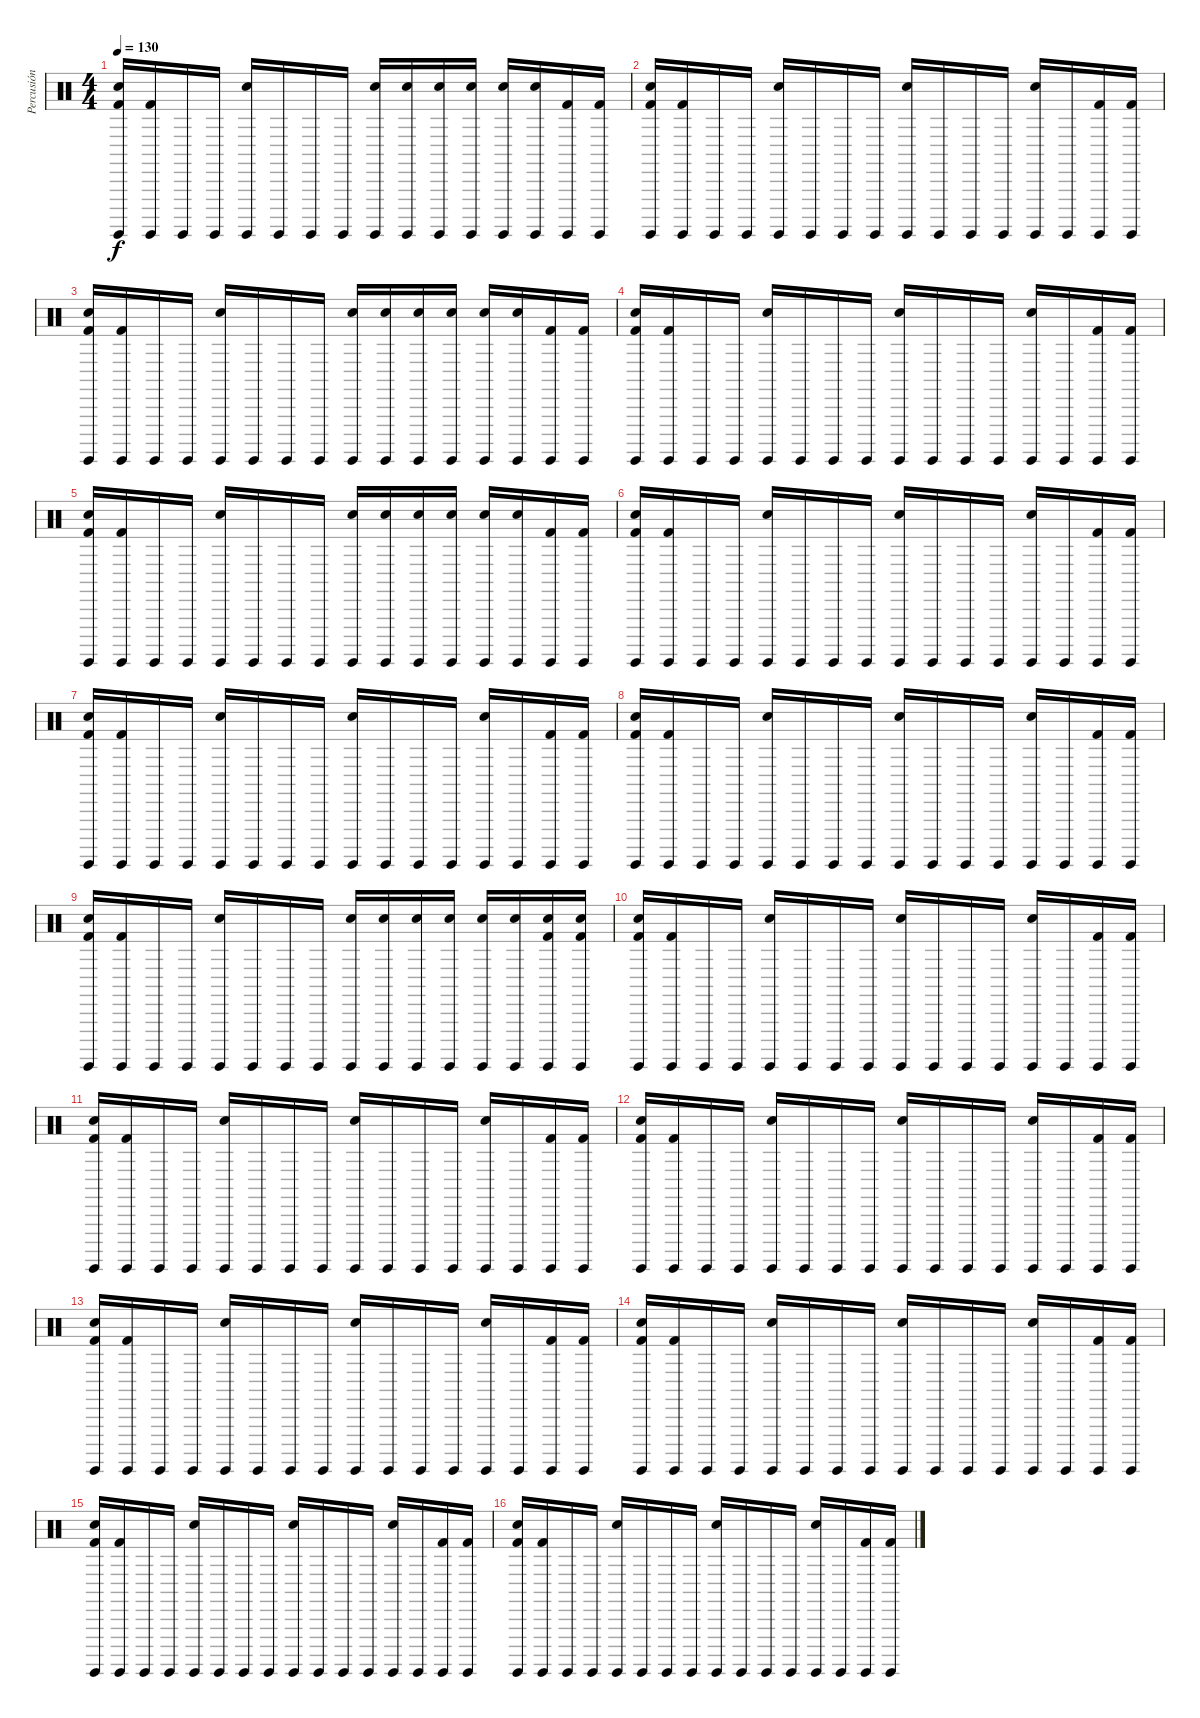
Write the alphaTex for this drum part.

\track ("Percusión" "Percusión") {instrument percussion}
\staff {score}
\articulation defaults
\ts (4 4)
\tempo 130
\clef neutral
\ks c
("Kick (hit) 2" "Electric Snare (hit)" "Surdo (hit)").16{dy f} ("Kick (hit) 2" "Surdo (hit)").16 "Surdo (hit)".16 "Surdo (hit)".16 ("Electric Snare (hit)" "Surdo (hit)").16 "Surdo (hit)".16 "Surdo (hit)".16 "Surdo (hit)".16 ("Electric Snare (hit)" "Surdo (hit)").16 ("Electric Snare (hit)" "Surdo (hit)").16 ("Electric Snare (hit)" "Surdo (hit)").16 ("Electric Snare (hit)" "Surdo (hit)").16 ("Electric Snare (hit)" "Surdo (hit)").16 ("Electric Snare (hit)" "Surdo (hit)").16 ("Kick (hit) 2" "Surdo (hit)").16 ("Kick (hit) 2" "Surdo (hit)").16 |
("Kick (hit) 2" "Electric Snare (hit)" "Surdo (hit)").16 ("Kick (hit) 2" "Surdo (hit)").16 "Surdo (hit)".16 "Surdo (hit)".16 ("Electric Snare (hit)" "Surdo (hit)").16 "Surdo (hit)".16 "Surdo (hit)".16 "Surdo (hit)".16 ("Electric Snare (hit)" "Surdo (hit)").16 "Surdo (hit)".16 "Surdo (hit)".16 "Surdo (hit)".16 ("Electric Snare (hit)" "Surdo (hit)").16 "Surdo (hit)".16 ("Kick (hit) 2" "Surdo (hit)").16 ("Kick (hit) 2" "Surdo (hit)").16 |
("Kick (hit) 2" "Electric Snare (hit)" "Surdo (hit)").16 ("Kick (hit) 2" "Surdo (hit)").16 "Surdo (hit)".16 "Surdo (hit)".16 ("Electric Snare (hit)" "Surdo (hit)").16 "Surdo (hit)".16 "Surdo (hit)".16 "Surdo (hit)".16 ("Electric Snare (hit)" "Surdo (hit)").16 ("Electric Snare (hit)" "Surdo (hit)").16 ("Electric Snare (hit)" "Surdo (hit)").16 ("Electric Snare (hit)" "Surdo (hit)").16 ("Electric Snare (hit)" "Surdo (hit)").16 ("Electric Snare (hit)" "Surdo (hit)").16 ("Kick (hit) 2" "Surdo (hit)").16 ("Kick (hit) 2" "Surdo (hit)").16 |
("Kick (hit) 2" "Electric Snare (hit)" "Surdo (hit)").16 ("Kick (hit) 2" "Surdo (hit)").16 "Surdo (hit)".16 "Surdo (hit)".16 ("Electric Snare (hit)" "Surdo (hit)").16 "Surdo (hit)".16 "Surdo (hit)".16 "Surdo (hit)".16 ("Electric Snare (hit)" "Surdo (hit)").16 "Surdo (hit)".16 "Surdo (hit)".16 "Surdo (hit)".16 ("Electric Snare (hit)" "Surdo (hit)").16 "Surdo (hit)".16 ("Kick (hit) 2" "Surdo (hit)").16 ("Kick (hit) 2" "Surdo (hit)").16 |
("Kick (hit) 2" "Electric Snare (hit)" "Surdo (hit)").16 ("Kick (hit) 2" "Surdo (hit)").16 "Surdo (hit)".16 "Surdo (hit)".16 ("Electric Snare (hit)" "Surdo (hit)").16 "Surdo (hit)".16 "Surdo (hit)".16 "Surdo (hit)".16 ("Electric Snare (hit)" "Surdo (hit)").16 ("Electric Snare (hit)" "Surdo (hit)").16 ("Electric Snare (hit)" "Surdo (hit)").16 ("Electric Snare (hit)" "Surdo (hit)").16 ("Electric Snare (hit)" "Surdo (hit)").16 ("Electric Snare (hit)" "Surdo (hit)").16 ("Kick (hit) 2" "Surdo (hit)").16 ("Kick (hit) 2" "Surdo (hit)").16 |
("Kick (hit) 2" "Electric Snare (hit)" "Surdo (hit)").16 ("Kick (hit) 2" "Surdo (hit)").16 "Surdo (hit)".16 "Surdo (hit)".16 ("Electric Snare (hit)" "Surdo (hit)").16 "Surdo (hit)".16 "Surdo (hit)".16 "Surdo (hit)".16 ("Electric Snare (hit)" "Surdo (hit)").16 "Surdo (hit)".16 "Surdo (hit)".16 "Surdo (hit)".16 ("Electric Snare (hit)" "Surdo (hit)").16 "Surdo (hit)".16 ("Kick (hit) 2" "Surdo (hit)").16 ("Kick (hit) 2" "Surdo (hit)").16 |
("Kick (hit) 2" "Electric Snare (hit)" "Surdo (hit)").16 ("Kick (hit) 2" "Surdo (hit)").16 "Surdo (hit)".16 "Surdo (hit)".16 ("Electric Snare (hit)" "Surdo (hit)").16 "Surdo (hit)".16 "Surdo (hit)".16 "Surdo (hit)".16 ("Electric Snare (hit)" "Surdo (hit)").16 "Surdo (hit)".16 "Surdo (hit)".16 "Surdo (hit)".16 ("Electric Snare (hit)" "Surdo (hit)").16 "Surdo (hit)".16 ("Kick (hit) 2" "Surdo (hit)").16 ("Kick (hit) 2" "Surdo (hit)").16 |
("Kick (hit) 2" "Electric Snare (hit)" "Surdo (hit)").16 ("Kick (hit) 2" "Surdo (hit)").16 "Surdo (hit)".16 "Surdo (hit)".16 ("Electric Snare (hit)" "Surdo (hit)").16 "Surdo (hit)".16 "Surdo (hit)".16 "Surdo (hit)".16 ("Electric Snare (hit)" "Surdo (hit)").16 "Surdo (hit)".16 "Surdo (hit)".16 "Surdo (hit)".16 ("Electric Snare (hit)" "Surdo (hit)").16 "Surdo (hit)".16 ("Kick (hit) 2" "Surdo (hit)").16 ("Kick (hit) 2" "Surdo (hit)").16 |
("Kick (hit) 2" "Electric Snare (hit)" "Surdo (hit)").16 ("Kick (hit) 2" "Surdo (hit)").16 "Surdo (hit)".16 "Surdo (hit)".16 ("Electric Snare (hit)" "Surdo (hit)").16 "Surdo (hit)".16 "Surdo (hit)".16 "Surdo (hit)".16 ("Electric Snare (hit)" "Surdo (hit)").16 ("Electric Snare (hit)" "Surdo (hit)").16 ("Electric Snare (hit)" "Surdo (hit)").16 ("Electric Snare (hit)" "Surdo (hit)").16 ("Electric Snare (hit)" "Surdo (hit)").16 ("Electric Snare (hit)" "Surdo (hit)").16 ("Kick (hit) 2" "Electric Snare (hit)" "Surdo (hit)").16 ("Kick (hit) 2" "Electric Snare (hit)" "Surdo (hit)").16 |
("Kick (hit) 2" "Electric Snare (hit)" "Surdo (hit)").16 ("Kick (hit) 2" "Surdo (hit)").16 "Surdo (hit)".16 "Surdo (hit)".16 ("Electric Snare (hit)" "Surdo (hit)").16 "Surdo (hit)".16 "Surdo (hit)".16 "Surdo (hit)".16 ("Electric Snare (hit)" "Surdo (hit)").16 "Surdo (hit)".16 "Surdo (hit)".16 "Surdo (hit)".16 ("Electric Snare (hit)" "Surdo (hit)").16 "Surdo (hit)".16 ("Kick (hit) 2" "Surdo (hit)").16 ("Kick (hit) 2" "Surdo (hit)").16 |
("Kick (hit) 2" "Electric Snare (hit)" "Surdo (hit)").16 ("Kick (hit) 2" "Surdo (hit)").16 "Surdo (hit)".16 "Surdo (hit)".16 ("Electric Snare (hit)" "Surdo (hit)").16 "Surdo (hit)".16 "Surdo (hit)".16 "Surdo (hit)".16 ("Electric Snare (hit)" "Surdo (hit)").16 "Surdo (hit)".16 "Surdo (hit)".16 "Surdo (hit)".16 ("Electric Snare (hit)" "Surdo (hit)").16 "Surdo (hit)".16 ("Kick (hit) 2" "Surdo (hit)").16 ("Kick (hit) 2" "Surdo (hit)").16 |
("Kick (hit) 2" "Electric Snare (hit)" "Surdo (hit)").16 ("Kick (hit) 2" "Surdo (hit)").16 "Surdo (hit)".16 "Surdo (hit)".16 ("Electric Snare (hit)" "Surdo (hit)").16 "Surdo (hit)".16 "Surdo (hit)".16 "Surdo (hit)".16 ("Electric Snare (hit)" "Surdo (hit)").16 "Surdo (hit)".16 "Surdo (hit)".16 "Surdo (hit)".16 ("Electric Snare (hit)" "Surdo (hit)").16 "Surdo (hit)".16 ("Kick (hit) 2" "Surdo (hit)").16 ("Kick (hit) 2" "Surdo (hit)").16 |
("Kick (hit) 2" "Electric Snare (hit)" "Surdo (hit)").16 ("Kick (hit) 2" "Surdo (hit)").16 "Surdo (hit)".16 "Surdo (hit)".16 ("Electric Snare (hit)" "Surdo (hit)").16 "Surdo (hit)".16 "Surdo (hit)".16 "Surdo (hit)".16 ("Electric Snare (hit)" "Surdo (hit)").16 "Surdo (hit)".16 "Surdo (hit)".16 "Surdo (hit)".16 ("Electric Snare (hit)" "Surdo (hit)").16 "Surdo (hit)".16 ("Kick (hit) 2" "Surdo (hit)").16 ("Kick (hit) 2" "Surdo (hit)").16 |
("Kick (hit) 2" "Electric Snare (hit)" "Surdo (hit)").16 ("Kick (hit) 2" "Surdo (hit)").16 "Surdo (hit)".16 "Surdo (hit)".16 ("Electric Snare (hit)" "Surdo (hit)").16 "Surdo (hit)".16 "Surdo (hit)".16 "Surdo (hit)".16 ("Electric Snare (hit)" "Surdo (hit)").16 "Surdo (hit)".16 "Surdo (hit)".16 "Surdo (hit)".16 ("Electric Snare (hit)" "Surdo (hit)").16 "Surdo (hit)".16 ("Kick (hit) 2" "Surdo (hit)").16 ("Kick (hit) 2" "Surdo (hit)").16 |
("Kick (hit) 2" "Electric Snare (hit)" "Surdo (hit)").16 ("Kick (hit) 2" "Surdo (hit)").16 "Surdo (hit)".16 "Surdo (hit)".16 ("Electric Snare (hit)" "Surdo (hit)").16 "Surdo (hit)".16 "Surdo (hit)".16 "Surdo (hit)".16 ("Electric Snare (hit)" "Surdo (hit)").16 "Surdo (hit)".16 "Surdo (hit)".16 "Surdo (hit)".16 ("Electric Snare (hit)" "Surdo (hit)").16 "Surdo (hit)".16 ("Kick (hit) 2" "Surdo (hit)").16 ("Kick (hit) 2" "Surdo (hit)").16 |
("Kick (hit) 2" "Electric Snare (hit)" "Surdo (hit)").16 ("Kick (hit) 2" "Surdo (hit)").16 "Surdo (hit)".16 "Surdo (hit)".16 ("Electric Snare (hit)" "Surdo (hit)").16 "Surdo (hit)".16 "Surdo (hit)".16 "Surdo (hit)".16 ("Electric Snare (hit)" "Surdo (hit)").16 "Surdo (hit)".16 "Surdo (hit)".16 "Surdo (hit)".16 ("Electric Snare (hit)" "Surdo (hit)").16 "Surdo (hit)".16 ("Kick (hit) 2" "Surdo (hit)").16 ("Kick (hit) 2" "Surdo (hit)").16
